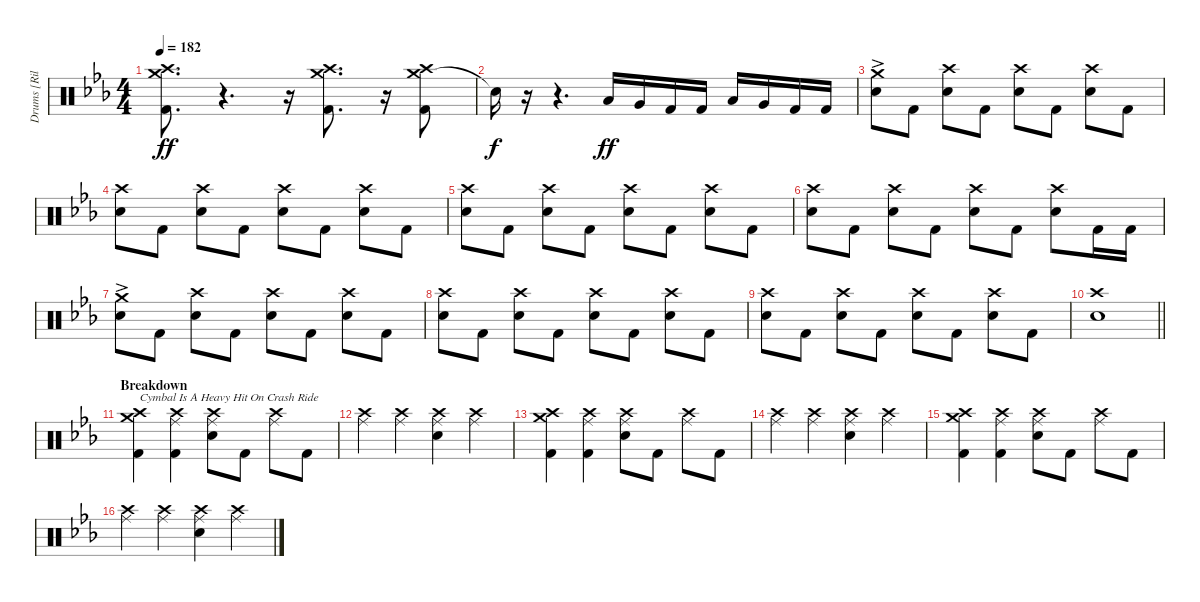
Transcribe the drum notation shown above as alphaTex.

\track ("Drums [Riley]" "Drums [Ril") {instrument percussion}
\staff {score}
\articulation defaults
\ts (4 4)
\tempo 182
\clef neutral
\ks eb
("Crash medium (hit)" "Crash high (hit)" "Kick (hit) 2").8{d dy ff volume 14} r.4{d volume 0} r.16 ("Crash medium (hit)" "Crash high (hit)" "Kick (hit) 2").8{d volume 14} r.16{volume 0} ("Crash medium (hit)" "Crash high (hit)" "Kick (hit) 2").8{volume 14} |
"Snare (hit)"{t}.16{dy f} r.16{volume 0} r.4{d} "Low Tom (hit)".16{dy ff volume 14} "Very Low Tom (hit)".16 "Kick (hit) 2".16 "Kick (hit) 2".16 "Low Tom (hit)".16 "Very Low Tom (hit)".16 "Kick (hit) 2".16 "Kick (hit) 2".16 |
("Crash medium (hit)"{ac} "Electric Snare (hit)").8 "Kick (hit) 2".8 ("Crash high (hit)" "Electric Snare (hit)").8 "Kick (hit) 2".8 ("Crash high (hit)" "Electric Snare (hit)").8 "Kick (hit) 2".8 ("Crash high (hit)" "Electric Snare (hit)").8 "Kick (hit) 2".8 |
("Crash high (hit)" "Electric Snare (hit)").8 "Kick (hit) 2".8 ("Crash high (hit)" "Electric Snare (hit)").8 "Kick (hit) 2".8 ("Crash high (hit)" "Electric Snare (hit)").8 "Kick (hit) 2".8 ("Crash high (hit)" "Electric Snare (hit)").8 "Kick (hit) 2".8 |
("Crash high (hit)" "Electric Snare (hit)").8 "Kick (hit) 2".8 ("Crash high (hit)" "Electric Snare (hit)").8 "Kick (hit) 2".8 ("Crash high (hit)" "Electric Snare (hit)").8 "Kick (hit) 2".8 ("Crash high (hit)" "Electric Snare (hit)").8 "Kick (hit) 2".8 |
("Crash high (hit)" "Electric Snare (hit)").8 "Kick (hit) 2".8 ("Crash high (hit)" "Electric Snare (hit)").8 "Kick (hit) 2".8 ("Crash high (hit)" "Electric Snare (hit)").8 "Kick (hit) 2".8 ("Crash high (hit)" "Electric Snare (hit)").8 "Kick (hit) 2".16 "Kick (hit) 2".16 |
("Crash medium (hit)"{ac} "Electric Snare (hit)").8 "Kick (hit) 2".8 ("Crash high (hit)" "Electric Snare (hit)").8 "Kick (hit) 2".8 ("Crash high (hit)" "Electric Snare (hit)").8 "Kick (hit) 2".8 ("Crash high (hit)" "Electric Snare (hit)").8 "Kick (hit) 2".8 |
("Crash high (hit)" "Electric Snare (hit)").8 "Kick (hit) 2".8 ("Crash high (hit)" "Electric Snare (hit)").8 "Kick (hit) 2".8 ("Crash high (hit)" "Electric Snare (hit)").8 "Kick (hit) 2".8 ("Crash high (hit)" "Electric Snare (hit)").8 "Kick (hit) 2".8 |
("Crash high (hit)" "Electric Snare (hit)").8 "Kick (hit) 2".8 ("Crash high (hit)" "Electric Snare (hit)").8 "Kick (hit) 2".8 ("Crash high (hit)" "Electric Snare (hit)").8 "Kick (hit) 2".8 ("Crash high (hit)" "Electric Snare (hit)").8 "Kick (hit) 2".8 |
\barLineRight lightlight
("Crash high (hit)" "Electric Snare (hit)").1 |
\section ("" "Breakdown")
("Crash medium (hit)" "Crash high (hit)" "Kick (hit) 2").4{txt "Cymbal Is A Heavy Hit On Crash Ride"} ("Crash high (hit)" "Ride (middle)" "Kick (hit) 2").4 ("Crash high (hit)" "Ride (middle)" "Electric Snare (hit)").8 "Kick (hit) 2".8 ("Crash high (hit)" "Ride (middle)").8 "Kick (hit) 2".8 |
("Crash high (hit)" "Ride (middle)").4 ("Crash high (hit)" "Ride (middle)").4 ("Crash high (hit)" "Ride (middle)" "Electric Snare (hit)").4 ("Crash high (hit)" "Ride (middle)").4 |
("Crash medium (hit)" "Crash high (hit)" "Kick (hit) 2").4 ("Crash high (hit)" "Ride (middle)" "Kick (hit) 2").4 ("Crash high (hit)" "Ride (middle)" "Electric Snare (hit)").8 "Kick (hit) 2".8 ("Crash high (hit)" "Ride (middle)").8 "Kick (hit) 2".8 |
("Crash high (hit)" "Ride (middle)").4 ("Crash high (hit)" "Ride (middle)").4 ("Crash high (hit)" "Ride (middle)" "Electric Snare (hit)").4 ("Crash high (hit)" "Ride (middle)").4 |
("Crash medium (hit)" "Crash high (hit)" "Kick (hit) 2").4 ("Crash high (hit)" "Ride (middle)" "Kick (hit) 2").4 ("Crash high (hit)" "Ride (middle)" "Electric Snare (hit)").8 "Kick (hit) 2".8 ("Crash high (hit)" "Ride (middle)").8 "Kick (hit) 2".8 |
("Crash high (hit)" "Ride (middle)").4 ("Crash high (hit)" "Ride (middle)").4 ("Crash high (hit)" "Ride (middle)" "Electric Snare (hit)").4 ("Crash high (hit)" "Ride (middle)").4
